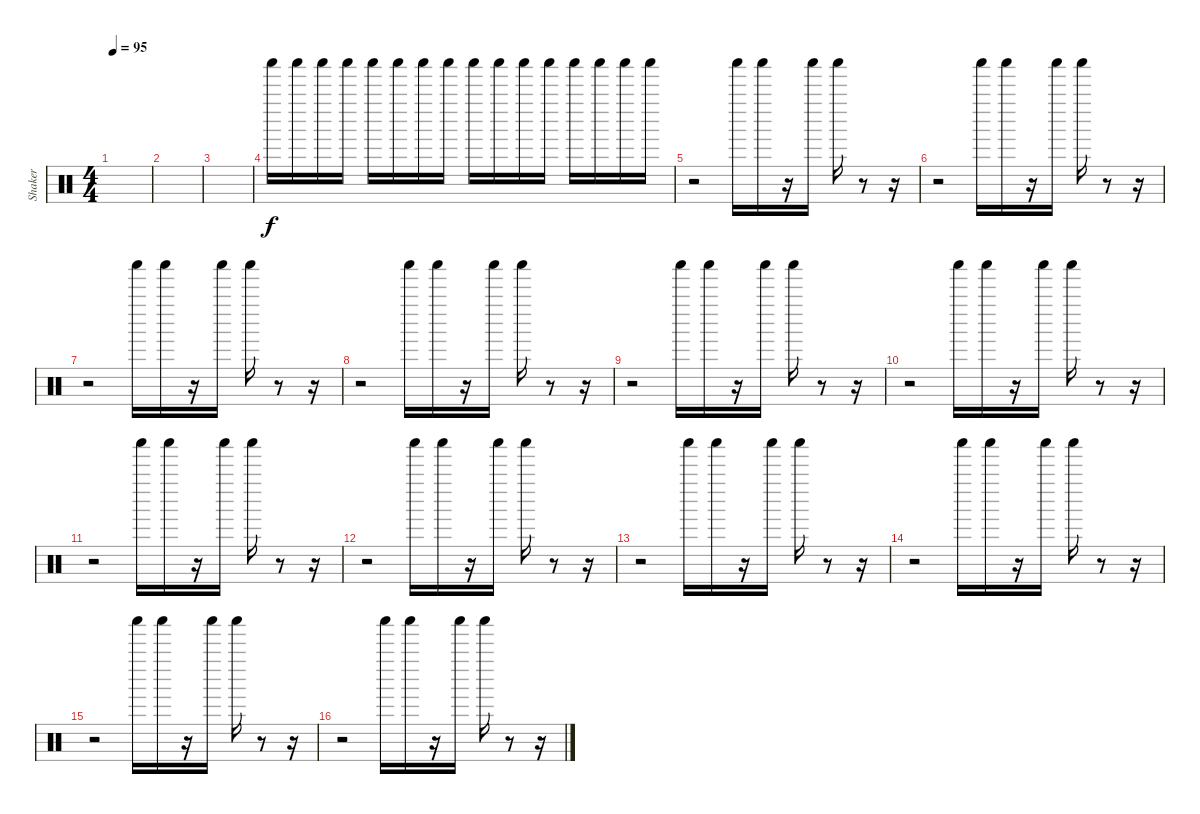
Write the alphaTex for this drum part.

\track ("Shaker" "Shaker") {instrument percussion}
\staff {score}
\articulation defaults
\ts (4 4)
\tempo 95
\clef neutral
\ks c
|
|
|
"Shaker (hit)".16 "Shaker (hit)".16 "Shaker (hit)".16 "Shaker (hit)".16 "Shaker (hit)".16 "Shaker (hit)".16 "Shaker (hit)".16 "Shaker (hit)".16 "Shaker (hit)".16 "Shaker (hit)".16 "Shaker (hit)".16 "Shaker (hit)".16 "Shaker (hit)".16 "Shaker (hit)".16 "Shaker (hit)".16 "Shaker (hit)".16 |
r.2 "Shaker (hit)".16 "Shaker (hit)".16 r.16 "Shaker (hit)".16 "Shaker (hit)".16 r.8 r.16 |
r.2 "Shaker (hit)".16 "Shaker (hit)".16 r.16 "Shaker (hit)".16 "Shaker (hit)".16 r.8 r.16 |
r.2 "Shaker (hit)".16 "Shaker (hit)".16 r.16 "Shaker (hit)".16 "Shaker (hit)".16 r.8 r.16 |
r.2 "Shaker (hit)".16 "Shaker (hit)".16 r.16 "Shaker (hit)".16 "Shaker (hit)".16 r.8 r.16 |
r.2 "Shaker (hit)".16 "Shaker (hit)".16 r.16 "Shaker (hit)".16 "Shaker (hit)".16 r.8 r.16 |
r.2 "Shaker (hit)".16 "Shaker (hit)".16 r.16 "Shaker (hit)".16 "Shaker (hit)".16 r.8 r.16 |
r.2 "Shaker (hit)".16 "Shaker (hit)".16 r.16 "Shaker (hit)".16 "Shaker (hit)".16 r.8 r.16 |
r.2 "Shaker (hit)".16 "Shaker (hit)".16 r.16 "Shaker (hit)".16 "Shaker (hit)".16 r.8 r.16 |
r.2 "Shaker (hit)".16 "Shaker (hit)".16 r.16 "Shaker (hit)".16 "Shaker (hit)".16 r.8 r.16 |
r.2 "Shaker (hit)".16 "Shaker (hit)".16 r.16 "Shaker (hit)".16 "Shaker (hit)".16 r.8 r.16 |
r.2 "Shaker (hit)".16 "Shaker (hit)".16 r.16 "Shaker (hit)".16 "Shaker (hit)".16 r.8 r.16 |
r.2 "Shaker (hit)".16 "Shaker (hit)".16 r.16 "Shaker (hit)".16 "Shaker (hit)".16 r.8 r.16
